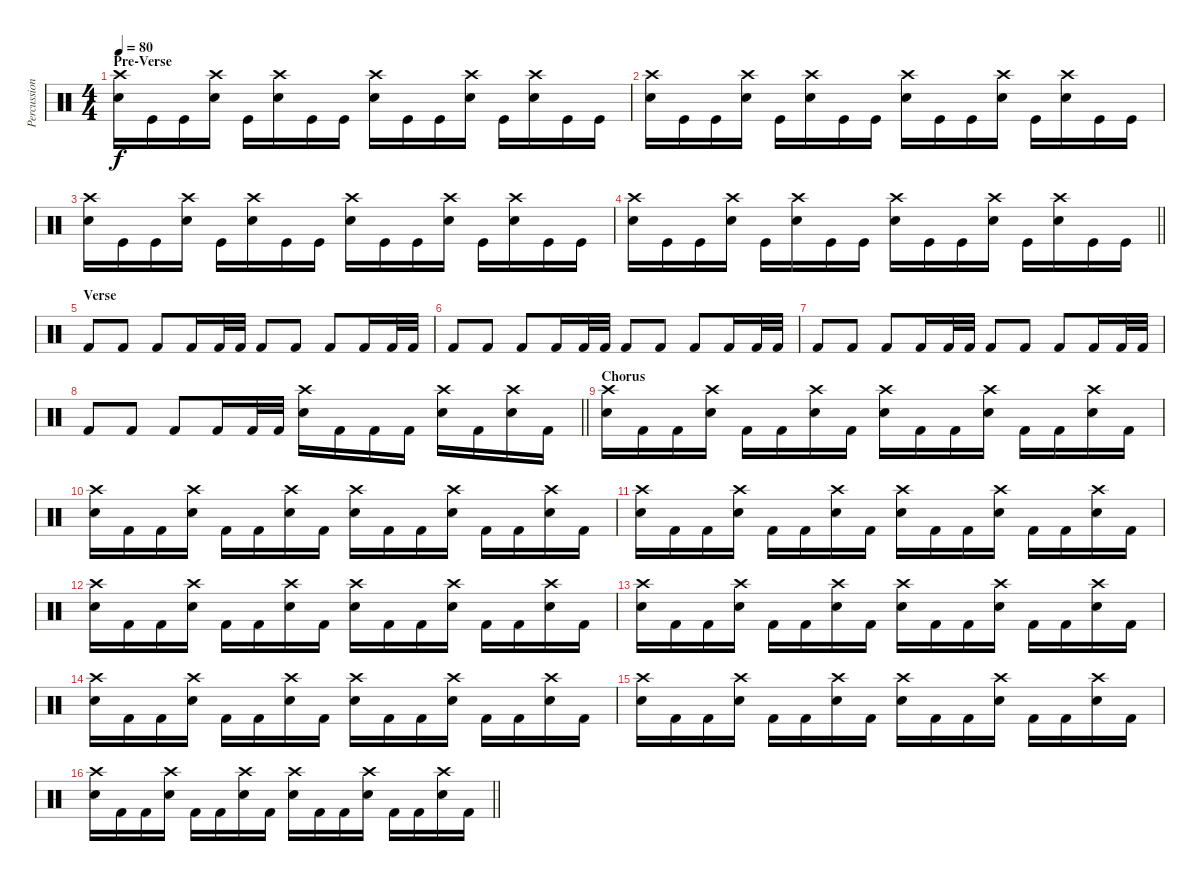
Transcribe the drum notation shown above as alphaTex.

\track ("Percussion" "Percussion") {instrument percussion}
\staff {score}
\articulation defaults
\ts (4 4)
\section ("" "Pre-Verse")
\tempo 80
\clef neutral
\ks c
("Crash high (hit)" "Electric Snare (hit)").16{dy f} "Kick (hit)".16 "Kick (hit)".16 ("Crash high (hit)" "Electric Snare (hit)").16 "Kick (hit)".16 ("Crash high (hit)" "Electric Snare (hit)").16 "Kick (hit)".16 "Kick (hit)".16 ("Crash high (hit)" "Electric Snare (hit)").16 "Kick (hit)".16 "Kick (hit)".16 ("Crash high (hit)" "Electric Snare (hit)").16 "Kick (hit)".16 ("Crash high (hit)" "Electric Snare (hit)").16 "Kick (hit)".16 "Kick (hit)".16 |
("Crash high (hit)" "Electric Snare (hit)").16 "Kick (hit)".16 "Kick (hit)".16 ("Crash high (hit)" "Electric Snare (hit)").16 "Kick (hit)".16 ("Crash high (hit)" "Electric Snare (hit)").16 "Kick (hit)".16 "Kick (hit)".16 ("Crash high (hit)" "Electric Snare (hit)").16 "Kick (hit)".16 "Kick (hit)".16 ("Crash high (hit)" "Electric Snare (hit)").16 "Kick (hit)".16 ("Crash high (hit)" "Electric Snare (hit)").16 "Kick (hit)".16 "Kick (hit)".16 |
("Crash high (hit)" "Electric Snare (hit)").16 "Kick (hit)".16 "Kick (hit)".16 ("Crash high (hit)" "Electric Snare (hit)").16 "Kick (hit)".16 ("Crash high (hit)" "Electric Snare (hit)").16 "Kick (hit)".16 "Kick (hit)".16 ("Crash high (hit)" "Electric Snare (hit)").16 "Kick (hit)".16 "Kick (hit)".16 ("Crash high (hit)" "Electric Snare (hit)").16 "Kick (hit)".16 ("Crash high (hit)" "Electric Snare (hit)").16 "Kick (hit)".16 "Kick (hit)".16 |
\barLineRight lightlight
("Crash high (hit)" "Electric Snare (hit)").16 "Kick (hit)".16 "Kick (hit)".16 ("Crash high (hit)" "Electric Snare (hit)").16 "Kick (hit)".16 ("Crash high (hit)" "Electric Snare (hit)").16 "Kick (hit)".16 "Kick (hit)".16 ("Crash high (hit)" "Electric Snare (hit)").16 "Kick (hit)".16 "Kick (hit)".16 ("Crash high (hit)" "Electric Snare (hit)").16 "Kick (hit)".16 ("Crash high (hit)" "Electric Snare (hit)").16 "Kick (hit)".16 "Kick (hit)".16 |
\section ("" "Verse")
"Kick (hit) 2".8 "Kick (hit) 2".8 "Kick (hit) 2".8 "Kick (hit) 2".16 "Kick (hit) 2".32 "Kick (hit) 2".32 "Kick (hit) 2".8 "Kick (hit) 2".8 "Kick (hit) 2".8 "Kick (hit) 2".16 "Kick (hit) 2".32 "Kick (hit) 2".32 |
"Kick (hit) 2".8 "Kick (hit) 2".8 "Kick (hit) 2".8 "Kick (hit) 2".16 "Kick (hit) 2".32 "Kick (hit) 2".32 "Kick (hit) 2".8 "Kick (hit) 2".8 "Kick (hit) 2".8 "Kick (hit) 2".16 "Kick (hit) 2".32 "Kick (hit) 2".32 |
"Kick (hit) 2".8 "Kick (hit) 2".8 "Kick (hit) 2".8 "Kick (hit) 2".16 "Kick (hit) 2".32 "Kick (hit) 2".32 "Kick (hit) 2".8 "Kick (hit) 2".8 "Kick (hit) 2".8 "Kick (hit) 2".16 "Kick (hit) 2".32 "Kick (hit) 2".32 |
\barLineRight lightlight "Kick (hit) 2".8 "Kick (hit) 2".8 "Kick (hit) 2".8 "Kick (hit) 2".16 "Kick (hit) 2".32 "Kick (hit) 2".32
("Crash high (hit)" "Electric Snare (hit)").16 "Kick (hit) 2".16 "Kick (hit) 2".16 "Kick (hit) 2".16 ("Crash high (hit)" "Electric Snare (hit)").16 "Kick (hit) 2".16 ("Crash high (hit)" "Electric Snare (hit)").16 "Kick (hit) 2".16 |
\section ("" "Chorus")
("Crash high (hit)" "Electric Snare (hit)").16 "Kick (hit) 2".16 "Kick (hit) 2".16 ("Crash high (hit)" "Electric Snare (hit)").16 "Kick (hit) 2".16 "Kick (hit) 2".16 ("Crash high (hit)" "Electric Snare (hit)").16 "Kick (hit) 2".16 ("Crash high (hit)" "Electric Snare (hit)").16 "Kick (hit) 2".16 "Kick (hit) 2".16 ("Crash high (hit)" "Electric Snare (hit)").16 "Kick (hit) 2".16 "Kick (hit) 2".16 ("Crash high (hit)" "Electric Snare (hit)").16 "Kick (hit) 2".16 |
("Crash high (hit)" "Electric Snare (hit)").16 "Kick (hit) 2".16 "Kick (hit) 2".16 ("Crash high (hit)" "Electric Snare (hit)").16 "Kick (hit) 2".16 "Kick (hit) 2".16 ("Crash high (hit)" "Electric Snare (hit)").16 "Kick (hit) 2".16 ("Crash high (hit)" "Electric Snare (hit)").16 "Kick (hit) 2".16 "Kick (hit) 2".16 ("Crash high (hit)" "Electric Snare (hit)").16 "Kick (hit) 2".16 "Kick (hit) 2".16 ("Crash high (hit)" "Electric Snare (hit)").16 "Kick (hit) 2".16 |
("Crash high (hit)" "Electric Snare (hit)").16 "Kick (hit) 2".16 "Kick (hit) 2".16 ("Crash high (hit)" "Electric Snare (hit)").16 "Kick (hit) 2".16 "Kick (hit) 2".16 ("Crash high (hit)" "Electric Snare (hit)").16 "Kick (hit) 2".16 ("Crash high (hit)" "Electric Snare (hit)").16 "Kick (hit) 2".16 "Kick (hit) 2".16 ("Crash high (hit)" "Electric Snare (hit)").16 "Kick (hit) 2".16 "Kick (hit) 2".16 ("Crash high (hit)" "Electric Snare (hit)").16 "Kick (hit) 2".16 |
("Crash high (hit)" "Electric Snare (hit)").16 "Kick (hit) 2".16 "Kick (hit) 2".16 ("Crash high (hit)" "Electric Snare (hit)").16 "Kick (hit) 2".16 "Kick (hit) 2".16 ("Crash high (hit)" "Electric Snare (hit)").16 "Kick (hit) 2".16 ("Crash high (hit)" "Electric Snare (hit)").16 "Kick (hit) 2".16 "Kick (hit) 2".16 ("Crash high (hit)" "Electric Snare (hit)").16 "Kick (hit) 2".16 "Kick (hit) 2".16 ("Crash high (hit)" "Electric Snare (hit)").16 "Kick (hit) 2".16 |
("Crash high (hit)" "Electric Snare (hit)").16 "Kick (hit) 2".16 "Kick (hit) 2".16 ("Crash high (hit)" "Electric Snare (hit)").16 "Kick (hit) 2".16 "Kick (hit) 2".16 ("Crash high (hit)" "Electric Snare (hit)").16 "Kick (hit) 2".16 ("Crash high (hit)" "Electric Snare (hit)").16 "Kick (hit) 2".16 "Kick (hit) 2".16 ("Crash high (hit)" "Electric Snare (hit)").16 "Kick (hit) 2".16 "Kick (hit) 2".16 ("Crash high (hit)" "Electric Snare (hit)").16 "Kick (hit) 2".16 |
("Crash high (hit)" "Electric Snare (hit)").16 "Kick (hit) 2".16 "Kick (hit) 2".16 ("Crash high (hit)" "Electric Snare (hit)").16 "Kick (hit) 2".16 "Kick (hit) 2".16 ("Crash high (hit)" "Electric Snare (hit)").16 "Kick (hit) 2".16 ("Crash high (hit)" "Electric Snare (hit)").16 "Kick (hit) 2".16 "Kick (hit) 2".16 ("Crash high (hit)" "Electric Snare (hit)").16 "Kick (hit) 2".16 "Kick (hit) 2".16 ("Crash high (hit)" "Electric Snare (hit)").16 "Kick (hit) 2".16 |
("Crash high (hit)" "Electric Snare (hit)").16 "Kick (hit) 2".16 "Kick (hit) 2".16 ("Crash high (hit)" "Electric Snare (hit)").16 "Kick (hit) 2".16 "Kick (hit) 2".16 ("Crash high (hit)" "Electric Snare (hit)").16 "Kick (hit) 2".16 ("Crash high (hit)" "Electric Snare (hit)").16 "Kick (hit) 2".16 "Kick (hit) 2".16 ("Crash high (hit)" "Electric Snare (hit)").16 "Kick (hit) 2".16 "Kick (hit) 2".16 ("Crash high (hit)" "Electric Snare (hit)").16 "Kick (hit) 2".16 |
\barLineRight lightlight
("Crash high (hit)" "Electric Snare (hit)").16 "Kick (hit) 2".16 "Kick (hit) 2".16 ("Crash high (hit)" "Electric Snare (hit)").16 "Kick (hit) 2".16 "Kick (hit) 2".16 ("Crash high (hit)" "Electric Snare (hit)").16 "Kick (hit) 2".16 ("Crash high (hit)" "Electric Snare (hit)").16 "Kick (hit) 2".16 "Kick (hit) 2".16 ("Crash high (hit)" "Electric Snare (hit)").16 "Kick (hit) 2".16 "Kick (hit) 2".16 ("Crash high (hit)" "Electric Snare (hit)").16 "Kick (hit) 2".16
